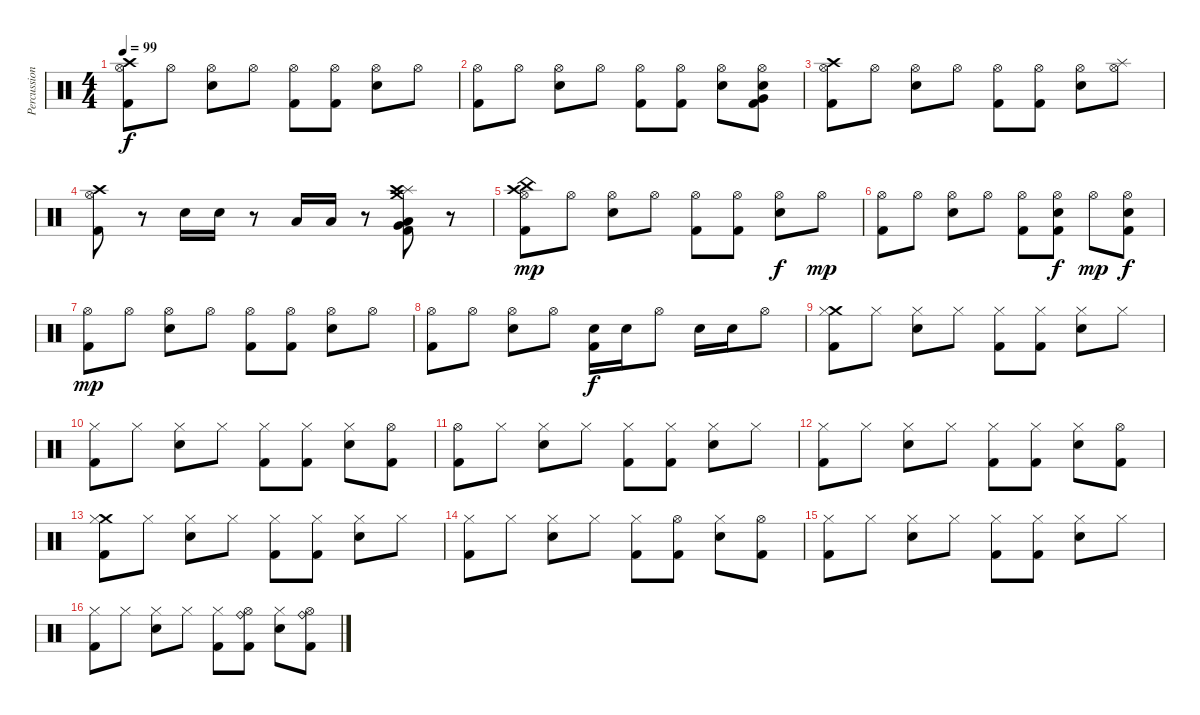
\track ("Percussion" "Percussion") {instrument percussion}
\staff {score}
\articulation defaults
\ts (4 4)
\tempo 99
\clef neutral
\ks c
("Crash high (hit)" "Kick (hit) 2" "Hi-Hat (open)").8{dy f} "Hi-Hat (open)".8 ("Snare (hit) 2" "Hi-Hat (open)").8 "Hi-Hat (open)".8 ("Kick (hit) 2" "Hi-Hat (open)").8 ("Kick (hit) 2" "Hi-Hat (open)").8 ("Snare (hit) 2" "Hi-Hat (open)").8 "Hi-Hat (open)".8 |
("Kick (hit) 2" "Hi-Hat (open)").8 "Hi-Hat (open)".8 ("Snare (hit) 2" "Hi-Hat (open)").8 "Hi-Hat (open)".8 ("Kick (hit) 2" "Hi-Hat (open)").8 ("Kick (hit) 2" "Hi-Hat (open)").8 ("Snare (hit) 2" "Hi-Hat (open)").8 ("Very Low Tom (hit)" "Snare (hit) 2" "Kick (hit) 2" "Hi-Hat (open)").8 |
("Crash high (hit)" "Kick (hit) 2" "Hi-Hat (open)").8 "Hi-Hat (open)".8 ("Snare (hit) 2" "Hi-Hat (open)").8 "Hi-Hat (open)".8 ("Kick (hit) 2" "Hi-Hat (open)").8 ("Kick (hit) 2" "Hi-Hat (open)").8 ("Snare (hit) 2" "Hi-Hat (open)").8 ("Splash (hit)" "Hi-Hat (open)").8 |
("Crash high (hit)" "Kick (hit) 2" "Hi-Hat (open)").8 r.8 "Snare (hit) 2".16 "Snare (hit) 2".16 r.8 "Low Tom (hit)".16 "Low Tom (hit)".16 r.8 ("Crash medium (hit)" "Splash (hit)" "Crash high (hit)" "Low Tom (hit)" "Very Low Tom (hit)" "Kick (hit) 2").8 r.8 |
("Crash high (hit)" "China (hit)" "Kick (hit) 2" "Hi-Hat (open)").8{dy mp} "Hi-Hat (open)".8 ("Snare (hit) 2" "Hi-Hat (open)").8 "Hi-Hat (open)".8 ("Kick (hit) 2" "Hi-Hat (open)").8 ("Kick (hit) 2" "Hi-Hat (open)").8 ("Snare (hit) 2" "Hi-Hat (open)").8{dy f} "Hi-Hat (open)".8{dy mp} |
("Kick (hit) 2" "Hi-Hat (open)").8 "Hi-Hat (open)".8 ("Snare (hit) 2" "Hi-Hat (open)").8 "Hi-Hat (open)".8 ("Kick (hit) 2" "Hi-Hat (open)").8 ("Snare (hit) 2" "Kick (hit) 2" "Hi-Hat (open)").8{dy f} "Hi-Hat (open)".8{dy mp} ("Snare (hit) 2" "Kick (hit) 2" "Hi-Hat (open)").8{dy f} |
("Kick (hit) 2" "Hi-Hat (open)").8{dy mp} "Hi-Hat (open)".8 ("Snare (hit) 2" "Hi-Hat (open)").8 "Hi-Hat (open)".8 ("Kick (hit) 2" "Hi-Hat (open)").8 ("Kick (hit) 2" "Hi-Hat (open)").8 ("Snare (hit) 2" "Hi-Hat (open)").8 "Hi-Hat (open)".8 |
("Kick (hit) 2" "Hi-Hat (open)").8 "Hi-Hat (open)".8 ("Snare (hit) 2" "Hi-Hat (open)").8 "Hi-Hat (open)".8 ("Snare (hit) 2" "Kick (hit) 2").16{dy f} "Snare (hit) 2".16 "Hi-Hat (open)".8 "Snare (hit) 2".16 "Snare (hit) 2".16 "Hi-Hat (open)".8 |
("Crash medium (hit)" "Kick (hit) 2" "Hi-Hat (closed)").8 "Hi-Hat (closed)".8 ("Snare (hit) 2" "Hi-Hat (closed)").8 "Hi-Hat (closed)".8 ("Kick (hit) 2" "Hi-Hat (closed)").8 ("Kick (hit) 2" "Hi-Hat (closed)").8 ("Snare (hit) 2" "Hi-Hat (closed)").8 "Hi-Hat (closed)".8 |
("Kick (hit) 2" "Hi-Hat (closed)").8 "Hi-Hat (closed)".8 ("Snare (hit) 2" "Hi-Hat (closed)").8 "Hi-Hat (closed)".8 ("Kick (hit) 2" "Hi-Hat (closed)").8 ("Kick (hit) 2" "Hi-Hat (closed)").8 ("Snare (hit) 2" "Hi-Hat (closed)").8 ("Kick (hit) 2" "Hi-Hat (open)").8 |
("Kick (hit) 2" "Hi-Hat (open)").8 "Hi-Hat (closed)".8 ("Snare (hit) 2" "Hi-Hat (closed)").8 "Hi-Hat (closed)".8 ("Kick (hit) 2" "Hi-Hat (closed)").8 ("Kick (hit) 2" "Hi-Hat (closed)").8 ("Snare (hit) 2" "Hi-Hat (closed)").8 "Hi-Hat (closed)".8 |
("Kick (hit) 2" "Hi-Hat (closed)").8 "Hi-Hat (closed)".8 ("Snare (hit) 2" "Hi-Hat (closed)").8 "Hi-Hat (closed)".8 ("Kick (hit) 2" "Hi-Hat (closed)").8 ("Kick (hit) 2" "Hi-Hat (closed)").8 ("Snare (hit) 2" "Hi-Hat (closed)").8 ("Kick (hit) 2" "Hi-Hat (open)").8 |
("Crash medium (hit)" "Kick (hit) 2" "Hi-Hat (closed)").8 "Hi-Hat (closed)".8 ("Snare (hit) 2" "Hi-Hat (closed)").8 "Hi-Hat (closed)".8 ("Kick (hit) 2" "Hi-Hat (closed)").8 ("Kick (hit) 2" "Hi-Hat (closed)").8 ("Snare (hit) 2" "Hi-Hat (closed)").8 "Hi-Hat (closed)".8 |
("Kick (hit) 2" "Hi-Hat (closed)").8 "Hi-Hat (closed)".8 ("Snare (hit) 2" "Hi-Hat (closed)").8 "Hi-Hat (closed)".8 ("Kick (hit) 2" "Hi-Hat (closed)").8 ("Kick (hit) 2" "Hi-Hat (open)").8 ("Snare (hit) 2" "Hi-Hat (closed)").8 ("Kick (hit) 2" "Hi-Hat (open)").8 |
("Kick (hit) 2" "Hi-Hat (closed)").8 "Hi-Hat (closed)".8 ("Snare (hit) 2" "Hi-Hat (closed)").8 "Hi-Hat (closed)".8 ("Kick (hit) 2" "Hi-Hat (closed)").8 ("Kick (hit) 2" "Hi-Hat (closed)").8 ("Snare (hit) 2" "Hi-Hat (closed)").8 "Hi-Hat (closed)".8 |
("Kick (hit) 2" "Hi-Hat (closed)").8 "Hi-Hat (closed)".8 ("Snare (hit) 2" "Hi-Hat (closed)").8 "Hi-Hat (closed)".8 ("Kick (hit) 2" "Hi-Hat (closed)").8 ("Ride (bell)" "Kick (hit) 2" "Hi-Hat (open)").8 ("Snare (hit) 2" "Hi-Hat (closed)").8 ("Ride (bell)" "Kick (hit) 2" "Hi-Hat (open)").8
